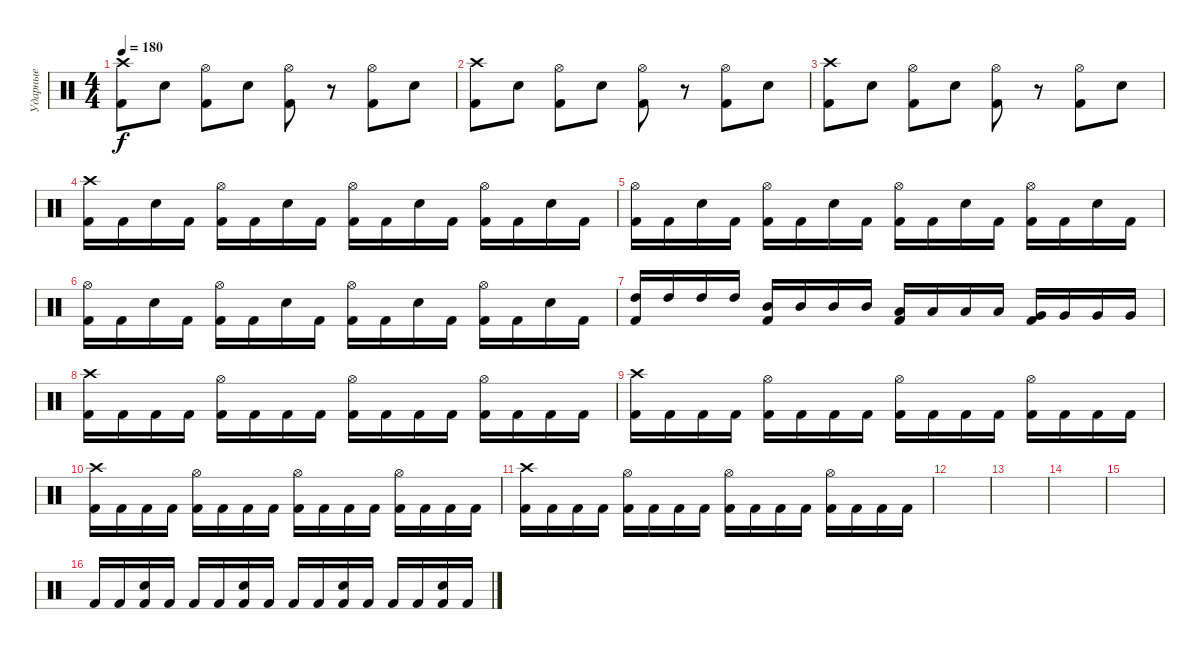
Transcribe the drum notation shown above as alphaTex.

\track ("Ударные" "Ударные") {instrument percussion}
\staff {score}
\articulation defaults
\ts (4 4)
\tempo 180
\clef neutral
\ks c
("Crash high (hit)" "Kick (hit) 2").8{dy f} "Electric Snare (hit)".8 ("Hi-Hat (open)" "Kick (hit) 2").8 "Electric Snare (hit)".8 ("Hi-Hat (open)" "Kick (hit) 2").8 r.8 ("Hi-Hat (open)" "Kick (hit) 2").8 "Electric Snare (hit)".8 |
("Crash high (hit)" "Kick (hit) 2").8 "Electric Snare (hit)".8 ("Hi-Hat (open)" "Kick (hit) 2").8 "Electric Snare (hit)".8 ("Hi-Hat (open)" "Kick (hit) 2").8 r.8 ("Hi-Hat (open)" "Kick (hit) 2").8 "Electric Snare (hit)".8 |
("Crash high (hit)" "Kick (hit) 2").8 "Electric Snare (hit)".8 ("Hi-Hat (open)" "Kick (hit) 2").8 "Electric Snare (hit)".8 ("Hi-Hat (open)" "Kick (hit) 2").8 r.8 ("Hi-Hat (open)" "Kick (hit) 2").8 "Electric Snare (hit)".8 |
("Crash high (hit)" "Kick (hit) 2").16 "Kick (hit) 2".16 "Electric Snare (hit)".16 "Kick (hit) 2".16 ("Hi-Hat (open)" "Kick (hit) 2").16 "Kick (hit) 2".16 "Electric Snare (hit)".16 "Kick (hit) 2".16 ("Hi-Hat (open)" "Kick (hit) 2").16 "Kick (hit) 2".16 "Electric Snare (hit)".16 "Kick (hit) 2".16 ("Hi-Hat (open)" "Kick (hit) 2").16 "Kick (hit) 2".16 "Electric Snare (hit)".16 "Kick (hit) 2".16 |
("Hi-Hat (open)" "Kick (hit) 2").16 "Kick (hit) 2".16 "Electric Snare (hit)".16 "Kick (hit) 2".16 ("Hi-Hat (open)" "Kick (hit) 2").16 "Kick (hit) 2".16 "Electric Snare (hit)".16 "Kick (hit) 2".16 ("Hi-Hat (open)" "Kick (hit) 2").16 "Kick (hit) 2".16 "Electric Snare (hit)".16 "Kick (hit) 2".16 ("Hi-Hat (open)" "Kick (hit) 2").16 "Kick (hit) 2".16 "Electric Snare (hit)".16 "Kick (hit) 2".16 |
("Hi-Hat (open)" "Kick (hit) 2").16 "Kick (hit) 2".16 "Electric Snare (hit)".16 "Kick (hit) 2".16 ("Hi-Hat (open)" "Kick (hit) 2").16 "Kick (hit) 2".16 "Electric Snare (hit)".16 "Kick (hit) 2".16 ("Hi-Hat (open)" "Kick (hit) 2").16 "Kick (hit) 2".16 "Electric Snare (hit)".16 "Kick (hit) 2".16 ("Hi-Hat (open)" "Kick (hit) 2").16 "Kick (hit) 2".16 "Electric Snare (hit)".16 "Kick (hit) 2".16 |
("High Tom (hit)" "Kick (hit) 2").16 "High Tom (hit)".16 "High Tom (hit)".16 "High Tom (hit)".16 ("Mid Tom (hit)" "Kick (hit) 2").16 "Mid Tom (hit)".16 "Mid Tom (hit)".16 "Mid Tom (hit)".16 ("Low Tom (hit)" "Kick (hit) 2").16 "Low Tom (hit)".16 "Low Tom (hit)".16 "Low Tom (hit)".16 ("Very Low Tom (hit)" "Kick (hit) 2").16 "Very Low Tom (hit)".16 "Very Low Tom (hit)".16 "Very Low Tom (hit)".16 |
("Crash high (hit)" "Kick (hit) 2").16 "Kick (hit) 2".16 "Kick (hit) 2".16 "Kick (hit) 2".16 ("Hi-Hat (open)" "Kick (hit) 2").16 "Kick (hit) 2".16 "Kick (hit) 2".16 "Kick (hit) 2".16 ("Hi-Hat (open)" "Kick (hit) 2").16 "Kick (hit) 2".16 "Kick (hit) 2".16 "Kick (hit) 2".16 ("Hi-Hat (open)" "Kick (hit) 2").16 "Kick (hit) 2".16 "Kick (hit) 2".16 "Kick (hit) 2".16 |
("Crash high (hit)" "Kick (hit) 2").16 "Kick (hit) 2".16 "Kick (hit) 2".16 "Kick (hit) 2".16 ("Hi-Hat (open)" "Kick (hit) 2").16 "Kick (hit) 2".16 "Kick (hit) 2".16 "Kick (hit) 2".16 ("Hi-Hat (open)" "Kick (hit) 2").16 "Kick (hit) 2".16 "Kick (hit) 2".16 "Kick (hit) 2".16 ("Hi-Hat (open)" "Kick (hit) 2").16 "Kick (hit) 2".16 "Kick (hit) 2".16 "Kick (hit) 2".16 |
("Crash high (hit)" "Kick (hit) 2").16 "Kick (hit) 2".16 "Kick (hit) 2".16 "Kick (hit) 2".16 ("Hi-Hat (open)" "Kick (hit) 2").16 "Kick (hit) 2".16 "Kick (hit) 2".16 "Kick (hit) 2".16 ("Hi-Hat (open)" "Kick (hit) 2").16 "Kick (hit) 2".16 "Kick (hit) 2".16 "Kick (hit) 2".16 ("Hi-Hat (open)" "Kick (hit) 2").16 "Kick (hit) 2".16 "Kick (hit) 2".16 "Kick (hit) 2".16 |
("Crash high (hit)" "Kick (hit) 2").16 "Kick (hit) 2".16 "Kick (hit) 2".16 "Kick (hit) 2".16 ("Hi-Hat (open)" "Kick (hit) 2").16 "Kick (hit) 2".16 "Kick (hit) 2".16 "Kick (hit) 2".16 ("Hi-Hat (open)" "Kick (hit) 2").16 "Kick (hit) 2".16 "Kick (hit) 2".16 "Kick (hit) 2".16 ("Hi-Hat (open)" "Kick (hit) 2").16 "Kick (hit) 2".16 "Kick (hit) 2".16 "Kick (hit) 2".16 |
|
|
|
|
"Kick (hit) 2".16 "Kick (hit) 2".16 ("Electric Snare (hit)" "Kick (hit) 2").16 "Kick (hit) 2".16 "Kick (hit) 2".16 "Kick (hit) 2".16 ("Electric Snare (hit)" "Kick (hit) 2").16 "Kick (hit) 2".16 "Kick (hit) 2".16 "Kick (hit) 2".16 ("Electric Snare (hit)" "Kick (hit) 2").16 "Kick (hit) 2".16 "Kick (hit) 2".16 "Kick (hit) 2".16 ("Electric Snare (hit)" "Kick (hit) 2").16 "Kick (hit) 2".16
